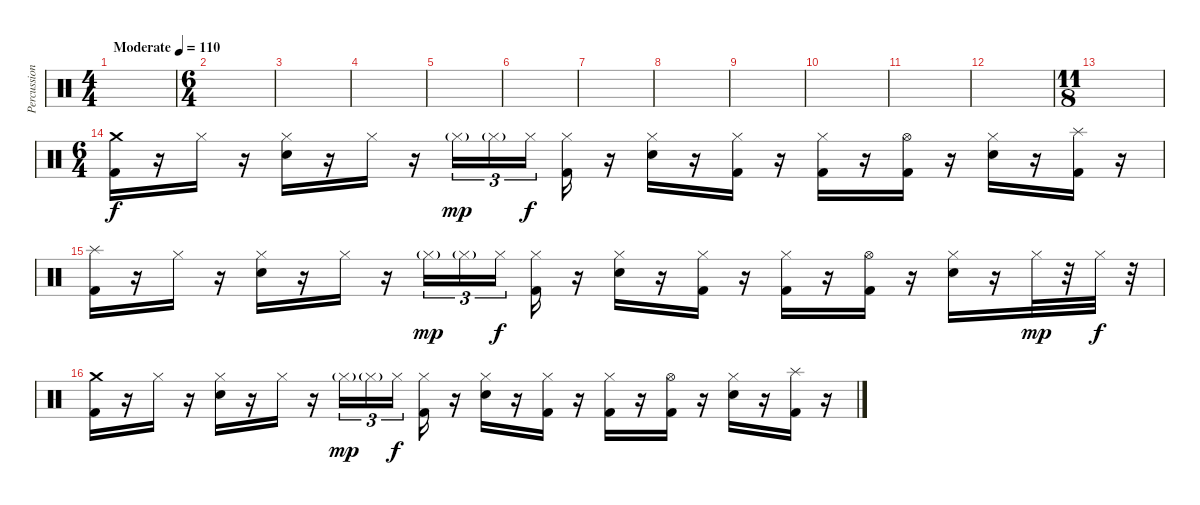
\track ("Percussion" "Percussion") {instrument percussion}
\staff {score}
\articulation defaults
\ts (4 4)
\tempo (110 "Moderate")
\clef neutral
\ks c
|
\ts (6 4)
|
|
|
|
|
|
|
|
|
|
|
\ts (11 8)
|
\ts (6 4)
("Crash medium (hit)" "Kick (hit) 2").16 r.16 "Hi-Hat (closed)".16 r.16 ("Hi-Hat (closed)" "Electric Snare (hit)").16 r.16 "Hi-Hat (closed)".16 r.16 "Hi-Hat (closed)"{g}.16{tu (3 2) dy mp} "Hi-Hat (closed)"{g}.16{tu (3 2)} "Hi-Hat (closed)".16{tu (3 2) dy f beam splitsecondary} ("Hi-Hat (closed)" "Kick (hit) 2").16 r.16 ("Hi-Hat (closed)" "Electric Snare (hit)").16 r.16 ("Hi-Hat (closed)" "Kick (hit) 2").16 r.16 ("Hi-Hat (closed)" "Kick (hit) 2").16 r.16 ("Hi-Hat (open)" "Kick (hit) 2").16 r.16 ("Hi-Hat (closed)" "Electric Snare (hit)").16 r.16 ("Splash (hit)" "Kick (hit) 2").16 r.16 |
("Splash (hit)" "Kick (hit) 2").16 r.16 "Hi-Hat (closed)".16 r.16 ("Hi-Hat (closed)" "Electric Snare (hit)").16 r.16 "Hi-Hat (closed)".16 r.16 "Hi-Hat (closed)"{g}.16{tu (3 2) dy mp} "Hi-Hat (closed)"{g}.16{tu (3 2)} "Hi-Hat (closed)".16{tu (3 2) dy f beam splitsecondary} ("Hi-Hat (closed)" "Kick (hit) 2").16 r.16 ("Hi-Hat (closed)" "Electric Snare (hit)").16 r.16 ("Hi-Hat (closed)" "Kick (hit) 2").16 r.16 ("Hi-Hat (closed)" "Kick (hit) 2").16 r.16 ("Hi-Hat (open)" "Kick (hit) 2").16 r.16 ("Hi-Hat (closed)" "Electric Snare (hit)").16 r.16 "Hi-Hat (closed)".32{dy mp} r.32 "Hi-Hat (closed)".32{dy f} r.32 |
("Crash medium (hit)" "Kick (hit) 2").16 r.16 "Hi-Hat (closed)".16 r.16 ("Hi-Hat (closed)" "Electric Snare (hit)").16 r.16 "Hi-Hat (closed)".16 r.16 "Hi-Hat (closed)"{g}.16{tu (3 2) dy mp} "Hi-Hat (closed)"{g}.16{tu (3 2)} "Hi-Hat (closed)".16{tu (3 2) dy f beam splitsecondary} ("Hi-Hat (closed)" "Kick (hit) 2").16 r.16 ("Hi-Hat (closed)" "Electric Snare (hit)").16 r.16 ("Hi-Hat (closed)" "Kick (hit) 2").16 r.16 ("Hi-Hat (closed)" "Kick (hit) 2").16 r.16 ("Hi-Hat (open)" "Kick (hit) 2").16 r.16 ("Hi-Hat (closed)" "Electric Snare (hit)").16 r.16 ("Splash (hit)" "Kick (hit) 2").16 r.16
